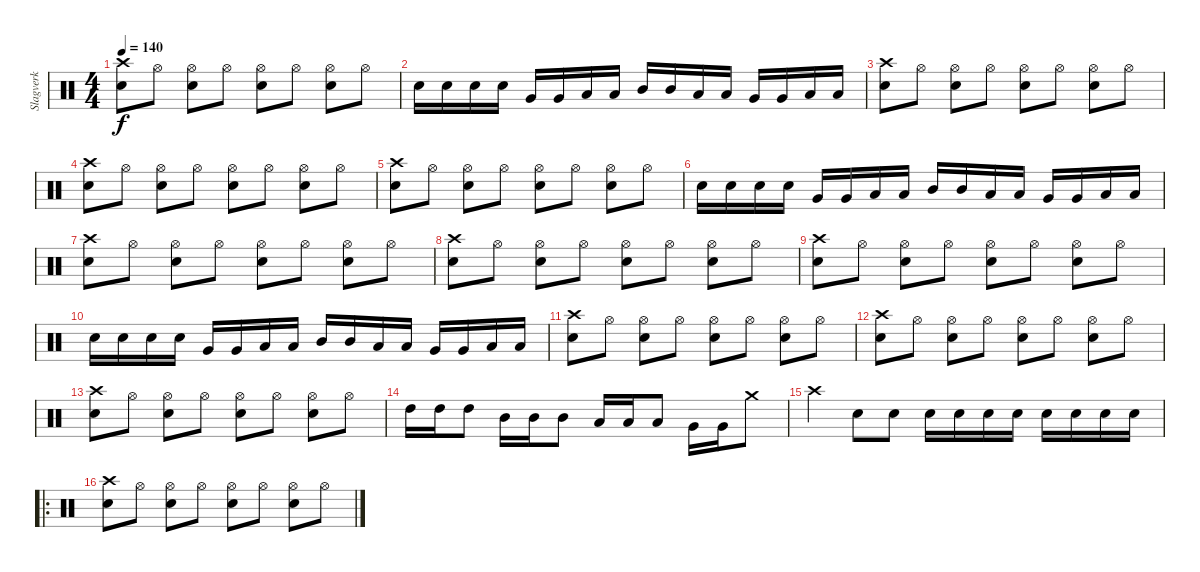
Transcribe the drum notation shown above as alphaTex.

\track ("Slagverk" "Slagverk") {instrument percussion}
\staff {score}
\articulation defaults
\ts (4 4)
\tempo 140
\clef neutral
\ks c
("Crash high (hit)" "Snare (hit) 2").8{dy f} "Hi-Hat (open)".8 ("Hi-Hat (open)" "Snare (hit) 2").8 "Hi-Hat (open)".8 ("Hi-Hat (open)" "Snare (hit) 2").8 "Hi-Hat (open)".8 ("Hi-Hat (open)" "Snare (hit) 2").8 "Hi-Hat (open)".8 |
"Snare (hit) 2".16 "Snare (hit) 2".16 "Snare (hit) 2".16 "Snare (hit) 2".16 "Very Low Tom (hit)".16 "Very Low Tom (hit)".16 "Low Tom (hit)".16 "Low Tom (hit)".16 "Mid Tom (hit)".16 "Mid Tom (hit)".16 "Low Tom (hit)".16 "Low Tom (hit)".16 "Very Low Tom (hit)".16 "Very Low Tom (hit)".16 "Low Floor Tom (hit)".16 "Low Floor Tom (hit)".16 |
("Crash high (hit)" "Snare (hit) 2").8 "Hi-Hat (open)".8 ("Hi-Hat (open)" "Snare (hit) 2").8 "Hi-Hat (open)".8 ("Hi-Hat (open)" "Snare (hit) 2").8 "Hi-Hat (open)".8 ("Hi-Hat (open)" "Snare (hit) 2").8 "Hi-Hat (open)".8 |
("Crash high (hit)" "Snare (hit) 2").8 "Hi-Hat (open)".8 ("Hi-Hat (open)" "Snare (hit) 2").8 "Hi-Hat (open)".8 ("Hi-Hat (open)" "Snare (hit) 2").8 "Hi-Hat (open)".8 ("Hi-Hat (open)" "Snare (hit) 2").8 "Hi-Hat (open)".8 |
("Crash high (hit)" "Snare (hit) 2").8 "Hi-Hat (open)".8 ("Hi-Hat (open)" "Snare (hit) 2").8 "Hi-Hat (open)".8 ("Hi-Hat (open)" "Snare (hit) 2").8 "Hi-Hat (open)".8 ("Hi-Hat (open)" "Snare (hit) 2").8 "Hi-Hat (open)".8 |
"Snare (hit) 2".16 "Snare (hit) 2".16 "Snare (hit) 2".16 "Snare (hit) 2".16 "Very Low Tom (hit)".16 "Very Low Tom (hit)".16 "Low Tom (hit)".16 "Low Tom (hit)".16 "Mid Tom (hit)".16 "Mid Tom (hit)".16 "Low Tom (hit)".16 "Low Tom (hit)".16 "Very Low Tom (hit)".16 "Very Low Tom (hit)".16 "Low Floor Tom (hit)".16 "Low Floor Tom (hit)".16 |
("Crash high (hit)" "Snare (hit) 2").8 "Hi-Hat (open)".8 ("Hi-Hat (open)" "Snare (hit) 2").8 "Hi-Hat (open)".8 ("Hi-Hat (open)" "Snare (hit) 2").8 "Hi-Hat (open)".8 ("Hi-Hat (open)" "Snare (hit) 2").8 "Hi-Hat (open)".8 |
("Crash high (hit)" "Snare (hit) 2").8 "Hi-Hat (open)".8 ("Hi-Hat (open)" "Snare (hit) 2").8 "Hi-Hat (open)".8 ("Hi-Hat (open)" "Snare (hit) 2").8 "Hi-Hat (open)".8 ("Hi-Hat (open)" "Snare (hit) 2").8 "Hi-Hat (open)".8 |
("Crash high (hit)" "Snare (hit) 2").8 "Hi-Hat (open)".8 ("Hi-Hat (open)" "Snare (hit) 2").8 "Hi-Hat (open)".8 ("Hi-Hat (open)" "Snare (hit) 2").8 "Hi-Hat (open)".8 ("Hi-Hat (open)" "Snare (hit) 2").8 "Hi-Hat (open)".8 |
"Snare (hit) 2".16 "Snare (hit) 2".16 "Snare (hit) 2".16 "Snare (hit) 2".16 "Very Low Tom (hit)".16 "Very Low Tom (hit)".16 "Low Tom (hit)".16 "Low Tom (hit)".16 "Mid Tom (hit)".16 "Mid Tom (hit)".16 "Low Tom (hit)".16 "Low Tom (hit)".16 "Very Low Tom (hit)".16 "Very Low Tom (hit)".16 "Low Floor Tom (hit)".16 "Low Floor Tom (hit)".16 |
("Crash high (hit)" "Snare (hit) 2").8 "Hi-Hat (open)".8 ("Hi-Hat (open)" "Snare (hit) 2").8 "Hi-Hat (open)".8 ("Hi-Hat (open)" "Snare (hit) 2").8 "Hi-Hat (open)".8 ("Hi-Hat (open)" "Snare (hit) 2").8 "Hi-Hat (open)".8 |
("Crash high (hit)" "Snare (hit) 2").8 "Hi-Hat (open)".8 ("Hi-Hat (open)" "Snare (hit) 2").8 "Hi-Hat (open)".8 ("Hi-Hat (open)" "Snare (hit) 2").8 "Hi-Hat (open)".8 ("Hi-Hat (open)" "Snare (hit) 2").8 "Hi-Hat (open)".8 |
("Crash high (hit)" "Snare (hit) 2").8 "Hi-Hat (open)".8 ("Hi-Hat (open)" "Snare (hit) 2").8 "Hi-Hat (open)".8 ("Hi-Hat (open)" "Snare (hit) 2").8 "Hi-Hat (open)".8 ("Hi-Hat (open)" "Snare (hit) 2").8 "Hi-Hat (open)".8 |
"High Tom (hit)".16 "High Tom (hit)".16 "High Tom (hit)".8 "Mid Tom (hit)".16 "Mid Tom (hit)".16 "Mid Tom (hit)".8 "Low Tom (hit)".16 "Low Tom (hit)".16 "Low Tom (hit)".8 "Very Low Tom (hit)".16 "Very Low Tom (hit)".16 "Crash medium (hit)".8 |
"Crash high (hit)".4 "Snare (hit) 2".8 "Snare (hit) 2".8 "Snare (hit) 2".16 "Snare (hit) 2".16 "Snare (hit) 2".16 "Snare (hit) 2".16 "Snare (hit) 2".16 "Snare (hit) 2".16 "Snare (hit) 2".16 "Snare (hit) 2".16 |
\ro
("Crash high (hit)" "Snare (hit) 2").8 "Hi-Hat (open)".8 ("Hi-Hat (open)" "Snare (hit) 2").8 "Hi-Hat (open)".8 ("Hi-Hat (open)" "Snare (hit) 2").8 "Hi-Hat (open)".8 ("Hi-Hat (open)" "Snare (hit) 2").8 "Hi-Hat (open)".8
